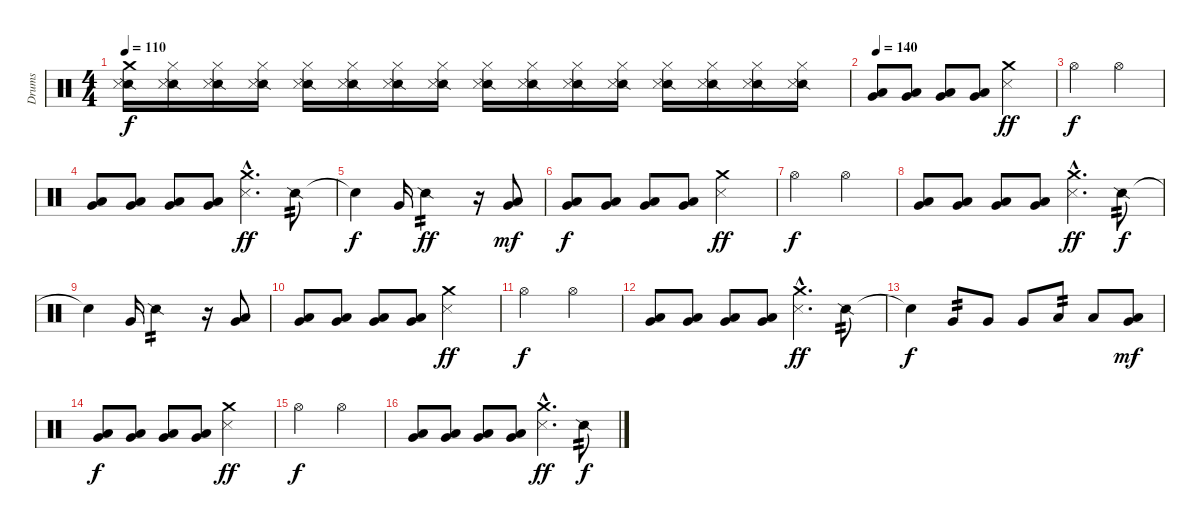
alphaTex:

\track ("Drums" "Drums") {instrument percussion}
\staff {score}
\articulation defaults
\ts (4 4)
\tempo 110
\clef neutral
\ks c
("Crash medium (hit)" "Snare (side stick) 2" "Metronome (hit)").16{dy f} ("Hi-Hat (closed)" "Snare (side stick) 2" "Metronome (hit)").16 ("Hi-Hat (closed)" "Snare (side stick) 2" "Metronome (hit)").16 ("Hi-Hat (closed)" "Snare (side stick) 2" "Metronome (hit)").16 ("Hi-Hat (closed)" "Snare (side stick) 2" "Metronome (hit)").16 ("Hi-Hat (closed)" "Snare (side stick) 2" "Metronome (hit)").16 ("Hi-Hat (closed)" "Snare (side stick) 2" "Metronome (hit)").16 ("Hi-Hat (closed)" "Snare (side stick) 2" "Metronome (hit)").16 ("Hi-Hat (closed)" "Snare (side stick) 2" "Metronome (hit)").16 ("Hi-Hat (closed)" "Snare (side stick) 2" "Metronome (hit)").16 ("Hi-Hat (closed)" "Snare (side stick) 2" "Metronome (hit)").16 ("Hi-Hat (closed)" "Snare (side stick) 2" "Metronome (hit)").16 ("Hi-Hat (closed)" "Snare (side stick) 2" "Metronome (hit)").16 ("Hi-Hat (closed)" "Snare (side stick) 2" "Metronome (hit)").16 ("Hi-Hat (closed)" "Snare (side stick) 2" "Metronome (hit)").16 ("Hi-Hat (closed)" "Snare (side stick) 2" "Metronome (hit)").16 |
\tempo 140
("Very Low Tom (hit)" "Low Floor Tom (hit)").8{bd 120} ("Very Low Tom (hit)" "Low Floor Tom (hit)").8{bd 60} ("Very Low Tom (hit)" "Low Floor Tom (hit)").8{bd 60} ("Very Low Tom (hit)" "Low Floor Tom (hit)").8{bd 60} ("Crash medium (hit)" "Metronome (hit)").2{dy ff} |
"Hi-Hat (open)".2{dy f} "Hi-Hat (open)".2 |
("Very Low Tom (hit)" "Low Floor Tom (hit)").8{bd 120} ("Very Low Tom (hit)" "Low Floor Tom (hit)").8{bd 60} ("Very Low Tom (hit)" "Low Floor Tom (hit)").8{bd 60} ("Very Low Tom (hit)" "Low Floor Tom (hit)").8{bd 60} ("Crash medium (hit)"{hac} "Metronome (hit)"{hac}).4{d dy ff} "Snare (side stick) 2".8{tp 2} |
"Snare (hit)"{t}.4{dy f} "Very Low Tom (hit)".16 "Snare (side stick) 2".2{tp 2 dy ff} r.16 ("Very Low Tom (hit)" "Low Tom (hit)").8{bd 120 dy mf} |
("Very Low Tom (hit)" "Low Floor Tom (hit)").8{bd 120 dy f} ("Very Low Tom (hit)" "Low Floor Tom (hit)").8{bd 60} ("Very Low Tom (hit)" "Low Floor Tom (hit)").8{bd 60} ("Very Low Tom (hit)" "Low Floor Tom (hit)").8{bd 60} ("Crash medium (hit)" "Metronome (hit)").2{dy ff} |
"Hi-Hat (open)".2{dy f} "Hi-Hat (open)".2 |
("Very Low Tom (hit)" "Low Floor Tom (hit)").8{bd 120} ("Very Low Tom (hit)" "Low Floor Tom (hit)").8{bd 60} ("Very Low Tom (hit)" "Low Floor Tom (hit)").8{bd 60} ("Very Low Tom (hit)" "Low Floor Tom (hit)").8{bd 60} ("Crash medium (hit)"{hac} "Metronome (hit)"{hac}).4{d dy ff} "Snare (side stick) 2".8{tp 2 dy f} |
"Snare (hit)"{t}.4 "Very Low Tom (hit)".16 "Snare (side stick) 2".2{tp 2} r.16 ("Very Low Tom (hit)" "Low Tom (hit)").8{bd 240} |
("Very Low Tom (hit)" "Low Floor Tom (hit)").8{bd 120} ("Very Low Tom (hit)" "Low Floor Tom (hit)").8{bd 60} ("Very Low Tom (hit)" "Low Floor Tom (hit)").8{bd 60} ("Very Low Tom (hit)" "Low Floor Tom (hit)").8{bd 60} ("Crash medium (hit)" "Metronome (hit)").2{dy ff} |
"Hi-Hat (open)".2{dy f} "Hi-Hat (open)".2 |
("Very Low Tom (hit)" "Low Floor Tom (hit)").8{bd 120} ("Very Low Tom (hit)" "Low Floor Tom (hit)").8{bd 60} ("Very Low Tom (hit)" "Low Floor Tom (hit)").8{bd 60} ("Very Low Tom (hit)" "Low Floor Tom (hit)").8{bd 60} ("Crash medium (hit)"{hac} "Metronome (hit)"{hac}).4{d dy ff} "Snare (side stick) 2".8{tp 2} |
"Snare (hit)"{t}.4{dy f} "Very Low Tom (hit)".8{tp 2} "Very Low Tom (hit)".8 "Very Low Tom (hit)".8 "Low Floor Tom (hit)".8{tp 2} "Low Floor Tom (hit)".8 ("Very Low Tom (hit)" "Low Floor Tom (hit)").8{bd 120 dy mf} |
("Very Low Tom (hit)" "Low Floor Tom (hit)").8{bd 120 dy f} ("Very Low Tom (hit)" "Low Floor Tom (hit)").8{bd 60} ("Very Low Tom (hit)" "Low Floor Tom (hit)").8{bd 60} ("Very Low Tom (hit)" "Low Floor Tom (hit)").8{bd 60} ("Crash medium (hit)" "Metronome (hit)").2{dy ff} |
"Hi-Hat (open)".2{dy f} "Hi-Hat (open)".2 |
("Very Low Tom (hit)" "Low Tom (hit)").8{bd 120} ("Very Low Tom (hit)" "Low Tom (hit)").8{bd 60} ("Very Low Tom (hit)" "Low Tom (hit)").8{bd 60} ("Very Low Tom (hit)" "Low Tom (hit)").8{bd 60} ("Crash medium (hit)"{hac} "Metronome (hit)"{hac}).4{d dy ff} "Snare (side stick) 2".8{tp 2 dy f}
